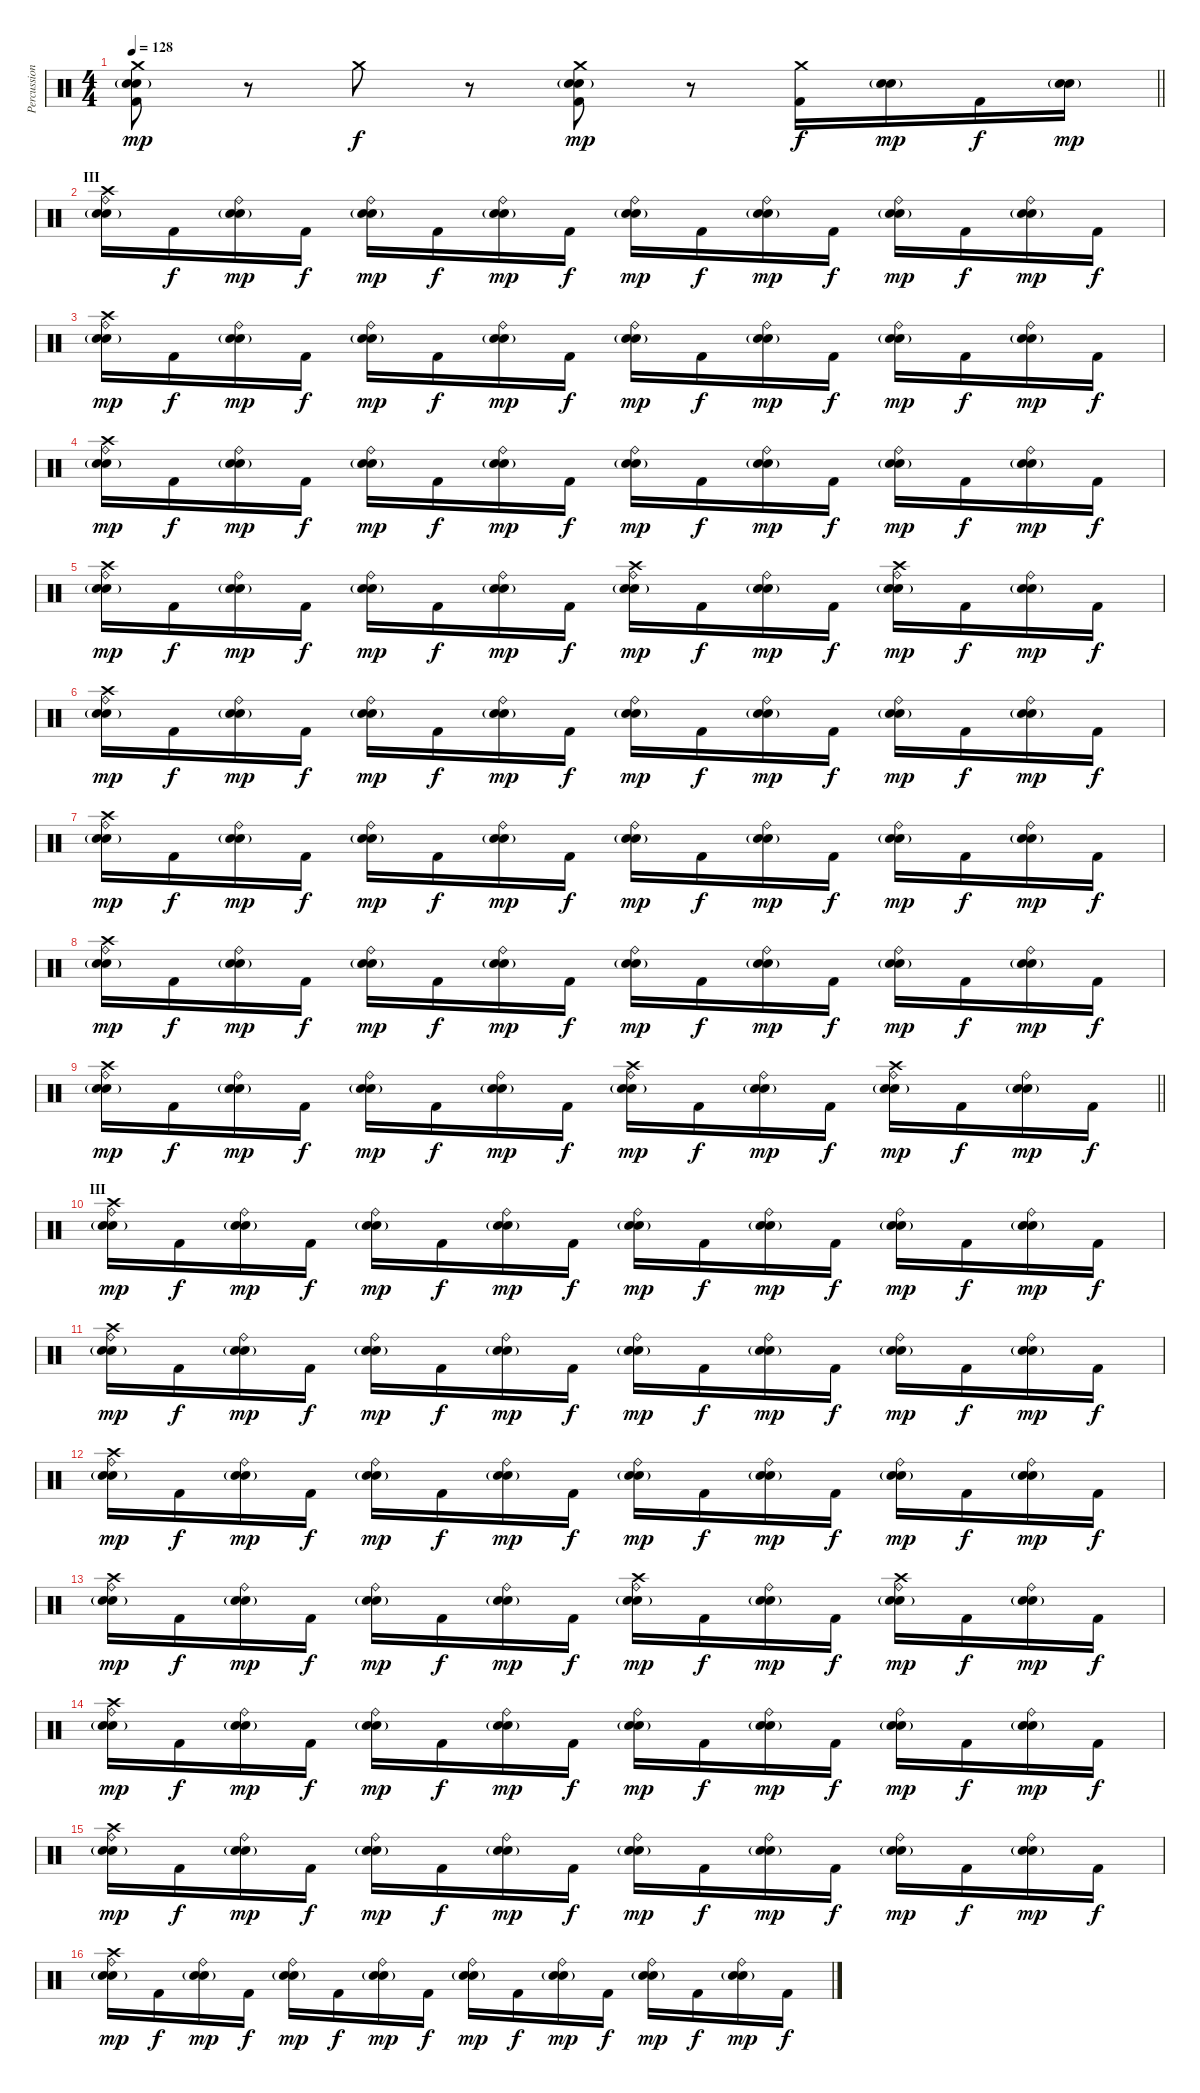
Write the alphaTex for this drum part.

\track ("Percussion" "Percussion") {instrument percussion}
\staff {score}
\articulation defaults
\ts (4 4)
\tempo 128
\clef neutral
\barLineRight lightlight
\ks c
("Crash medium (hit)" "Electric Snare (hit)" "Snare (hit) 2"{g} "Kick (hit) 2").8{dy mp} r.8 "Crash medium (hit)".8{dy f} r.8 ("Crash medium (hit)" "Electric Snare (hit)" "Snare (hit) 2"{g} "Kick (hit) 2").8{dy mp} r.8 ("Crash medium (hit)" "Kick (hit) 2").16{dy f} ("Electric Snare (hit)" "Snare (hit) 2"{g}).16{dy mp} "Kick (hit) 2".16{dy f} ("Electric Snare (hit)" "Snare (hit) 2"{g}).16{dy mp} |
\section ("" "III")
("Crash high (hit)" "Electric Snare (hit)" "Snare (hit) 2"{g} "Ride (bell)").16 "Kick (hit) 2".16{dy f} ("Electric Snare (hit)" "Snare (hit) 2"{g} "Ride (bell)").16{dy mp} "Kick (hit) 2".16{dy f} ("Electric Snare (hit)" "Snare (hit) 2"{g} "Ride (bell)").16{dy mp} "Kick (hit) 2".16{dy f} ("Electric Snare (hit)" "Snare (hit) 2"{g} "Ride (bell)").16{dy mp} "Kick (hit) 2".16{dy f} ("Electric Snare (hit)" "Snare (hit) 2"{g} "Ride (bell)").16{dy mp} "Kick (hit) 2".16{dy f} ("Electric Snare (hit)" "Snare (hit) 2"{g} "Ride (bell)").16{dy mp} "Kick (hit) 2".16{dy f} ("Electric Snare (hit)" "Snare (hit) 2"{g} "Ride (bell)").16{dy mp} "Kick (hit) 2".16{dy f} ("Electric Snare (hit)" "Snare (hit) 2"{g} "Ride (bell)").16{dy mp} "Kick (hit) 2".16{dy f} |
("Crash high (hit)" "Electric Snare (hit)" "Snare (hit) 2"{g} "Ride (bell)").16{dy mp} "Kick (hit) 2".16{dy f} ("Electric Snare (hit)" "Snare (hit) 2"{g} "Ride (bell)").16{dy mp} "Kick (hit) 2".16{dy f} ("Electric Snare (hit)" "Snare (hit) 2"{g} "Ride (bell)").16{dy mp} "Kick (hit) 2".16{dy f} ("Electric Snare (hit)" "Snare (hit) 2"{g} "Ride (bell)").16{dy mp} "Kick (hit) 2".16{dy f} ("Electric Snare (hit)" "Snare (hit) 2"{g} "Ride (bell)").16{dy mp} "Kick (hit) 2".16{dy f} ("Electric Snare (hit)" "Snare (hit) 2"{g} "Ride (bell)").16{dy mp} "Kick (hit) 2".16{dy f} ("Electric Snare (hit)" "Snare (hit) 2"{g} "Ride (bell)").16{dy mp} "Kick (hit) 2".16{dy f} ("Electric Snare (hit)" "Snare (hit) 2"{g} "Ride (bell)").16{dy mp} "Kick (hit) 2".16{dy f} |
("Crash high (hit)" "Electric Snare (hit)" "Snare (hit) 2"{g} "Ride (bell)").16{dy mp} "Kick (hit) 2".16{dy f} ("Electric Snare (hit)" "Snare (hit) 2"{g} "Ride (bell)").16{dy mp} "Kick (hit) 2".16{dy f} ("Electric Snare (hit)" "Snare (hit) 2"{g} "Ride (bell)").16{dy mp} "Kick (hit) 2".16{dy f} ("Electric Snare (hit)" "Snare (hit) 2"{g} "Ride (bell)").16{dy mp} "Kick (hit) 2".16{dy f} ("Electric Snare (hit)" "Snare (hit) 2"{g} "Ride (bell)").16{dy mp} "Kick (hit) 2".16{dy f} ("Electric Snare (hit)" "Snare (hit) 2"{g} "Ride (bell)").16{dy mp} "Kick (hit) 2".16{dy f} ("Electric Snare (hit)" "Snare (hit) 2"{g} "Ride (bell)").16{dy mp} "Kick (hit) 2".16{dy f} ("Electric Snare (hit)" "Snare (hit) 2"{g} "Ride (bell)").16{dy mp} "Kick (hit) 2".16{dy f} |
("Crash high (hit)" "Electric Snare (hit)" "Snare (hit) 2"{g} "Ride (bell)").16{dy mp} "Kick (hit) 2".16{dy f} ("Electric Snare (hit)" "Snare (hit) 2"{g} "Ride (bell)").16{dy mp} "Kick (hit) 2".16{dy f} ("Electric Snare (hit)" "Snare (hit) 2"{g} "Ride (bell)").16{dy mp} "Kick (hit) 2".16{dy f} ("Electric Snare (hit)" "Snare (hit) 2"{g} "Ride (bell)").16{dy mp} "Kick (hit) 2".16{dy f} ("Crash high (hit)" "Electric Snare (hit)" "Snare (hit) 2"{g} "Ride (bell)").16{dy mp} "Kick (hit) 2".16{dy f} ("Electric Snare (hit)" "Snare (hit) 2"{g} "Ride (bell)").16{dy mp} "Kick (hit) 2".16{dy f} ("Crash high (hit)" "Electric Snare (hit)" "Snare (hit) 2"{g} "Ride (bell)").16{dy mp} "Kick (hit) 2".16{dy f} ("Electric Snare (hit)" "Snare (hit) 2"{g} "Ride (bell)").16{dy mp} "Kick (hit) 2".16{dy f} |
("Crash high (hit)" "Electric Snare (hit)" "Snare (hit) 2"{g} "Ride (bell)").16{dy mp} "Kick (hit) 2".16{dy f} ("Electric Snare (hit)" "Snare (hit) 2"{g} "Ride (bell)").16{dy mp} "Kick (hit) 2".16{dy f} ("Electric Snare (hit)" "Snare (hit) 2"{g} "Ride (bell)").16{dy mp} "Kick (hit) 2".16{dy f} ("Electric Snare (hit)" "Snare (hit) 2"{g} "Ride (bell)").16{dy mp} "Kick (hit) 2".16{dy f} ("Electric Snare (hit)" "Snare (hit) 2"{g} "Ride (bell)").16{dy mp} "Kick (hit) 2".16{dy f} ("Electric Snare (hit)" "Snare (hit) 2"{g} "Ride (bell)").16{dy mp} "Kick (hit) 2".16{dy f} ("Electric Snare (hit)" "Snare (hit) 2"{g} "Ride (bell)").16{dy mp} "Kick (hit) 2".16{dy f} ("Electric Snare (hit)" "Snare (hit) 2"{g} "Ride (bell)").16{dy mp} "Kick (hit) 2".16{dy f} |
("Crash high (hit)" "Electric Snare (hit)" "Snare (hit) 2"{g} "Ride (bell)").16{dy mp} "Kick (hit) 2".16{dy f} ("Electric Snare (hit)" "Snare (hit) 2"{g} "Ride (bell)").16{dy mp} "Kick (hit) 2".16{dy f} ("Electric Snare (hit)" "Snare (hit) 2"{g} "Ride (bell)").16{dy mp} "Kick (hit) 2".16{dy f} ("Electric Snare (hit)" "Snare (hit) 2"{g} "Ride (bell)").16{dy mp} "Kick (hit) 2".16{dy f} ("Electric Snare (hit)" "Snare (hit) 2"{g} "Ride (bell)").16{dy mp} "Kick (hit) 2".16{dy f} ("Electric Snare (hit)" "Snare (hit) 2"{g} "Ride (bell)").16{dy mp} "Kick (hit) 2".16{dy f} ("Electric Snare (hit)" "Snare (hit) 2"{g} "Ride (bell)").16{dy mp} "Kick (hit) 2".16{dy f} ("Electric Snare (hit)" "Snare (hit) 2"{g} "Ride (bell)").16{dy mp} "Kick (hit) 2".16{dy f} |
("Crash high (hit)" "Electric Snare (hit)" "Snare (hit) 2"{g} "Ride (bell)").16{dy mp} "Kick (hit) 2".16{dy f} ("Electric Snare (hit)" "Snare (hit) 2"{g} "Ride (bell)").16{dy mp} "Kick (hit) 2".16{dy f} ("Electric Snare (hit)" "Snare (hit) 2"{g} "Ride (bell)").16{dy mp} "Kick (hit) 2".16{dy f} ("Electric Snare (hit)" "Snare (hit) 2"{g} "Ride (bell)").16{dy mp} "Kick (hit) 2".16{dy f} ("Electric Snare (hit)" "Snare (hit) 2"{g} "Ride (bell)").16{dy mp} "Kick (hit) 2".16{dy f} ("Electric Snare (hit)" "Snare (hit) 2"{g} "Ride (bell)").16{dy mp} "Kick (hit) 2".16{dy f} ("Electric Snare (hit)" "Snare (hit) 2"{g} "Ride (bell)").16{dy mp} "Kick (hit) 2".16{dy f} ("Electric Snare (hit)" "Snare (hit) 2"{g} "Ride (bell)").16{dy mp} "Kick (hit) 2".16{dy f} |
\barLineRight lightlight
("Crash high (hit)" "Electric Snare (hit)" "Snare (hit) 2"{g} "Ride (bell)").16{dy mp} "Kick (hit) 2".16{dy f} ("Electric Snare (hit)" "Snare (hit) 2"{g} "Ride (bell)").16{dy mp} "Kick (hit) 2".16{dy f} ("Electric Snare (hit)" "Snare (hit) 2"{g} "Ride (bell)").16{dy mp} "Kick (hit) 2".16{dy f} ("Electric Snare (hit)" "Snare (hit) 2"{g} "Ride (bell)").16{dy mp} "Kick (hit) 2".16{dy f} ("Crash high (hit)" "Electric Snare (hit)" "Snare (hit) 2"{g} "Ride (bell)").16{dy mp} "Kick (hit) 2".16{dy f} ("Electric Snare (hit)" "Snare (hit) 2"{g} "Ride (bell)").16{dy mp} "Kick (hit) 2".16{dy f} ("Crash high (hit)" "Electric Snare (hit)" "Snare (hit) 2"{g} "Ride (bell)").16{dy mp} "Kick (hit) 2".16{dy f} ("Electric Snare (hit)" "Snare (hit) 2"{g} "Ride (bell)").16{dy mp} "Kick (hit) 2".16{dy f} |
\section ("" "III")
("Crash high (hit)" "Electric Snare (hit)" "Snare (hit) 2"{g} "Ride (bell)").16{dy mp} "Kick (hit) 2".16{dy f} ("Electric Snare (hit)" "Snare (hit) 2"{g} "Ride (bell)").16{dy mp} "Kick (hit) 2".16{dy f} ("Electric Snare (hit)" "Snare (hit) 2"{g} "Ride (bell)").16{dy mp} "Kick (hit) 2".16{dy f} ("Electric Snare (hit)" "Snare (hit) 2"{g} "Ride (bell)").16{dy mp} "Kick (hit) 2".16{dy f} ("Electric Snare (hit)" "Snare (hit) 2"{g} "Ride (bell)").16{dy mp} "Kick (hit) 2".16{dy f} ("Electric Snare (hit)" "Snare (hit) 2"{g} "Ride (bell)").16{dy mp} "Kick (hit) 2".16{dy f} ("Electric Snare (hit)" "Snare (hit) 2"{g} "Ride (bell)").16{dy mp} "Kick (hit) 2".16{dy f} ("Electric Snare (hit)" "Snare (hit) 2"{g} "Ride (bell)").16{dy mp} "Kick (hit) 2".16{dy f} |
("Crash high (hit)" "Electric Snare (hit)" "Snare (hit) 2"{g} "Ride (bell)").16{dy mp} "Kick (hit) 2".16{dy f} ("Electric Snare (hit)" "Snare (hit) 2"{g} "Ride (bell)").16{dy mp} "Kick (hit) 2".16{dy f} ("Electric Snare (hit)" "Snare (hit) 2"{g} "Ride (bell)").16{dy mp} "Kick (hit) 2".16{dy f} ("Electric Snare (hit)" "Snare (hit) 2"{g} "Ride (bell)").16{dy mp} "Kick (hit) 2".16{dy f} ("Electric Snare (hit)" "Snare (hit) 2"{g} "Ride (bell)").16{dy mp} "Kick (hit) 2".16{dy f} ("Electric Snare (hit)" "Snare (hit) 2"{g} "Ride (bell)").16{dy mp} "Kick (hit) 2".16{dy f} ("Electric Snare (hit)" "Snare (hit) 2"{g} "Ride (bell)").16{dy mp} "Kick (hit) 2".16{dy f} ("Electric Snare (hit)" "Snare (hit) 2"{g} "Ride (bell)").16{dy mp} "Kick (hit) 2".16{dy f} |
("Crash high (hit)" "Electric Snare (hit)" "Snare (hit) 2"{g} "Ride (bell)").16{dy mp} "Kick (hit) 2".16{dy f} ("Electric Snare (hit)" "Snare (hit) 2"{g} "Ride (bell)").16{dy mp} "Kick (hit) 2".16{dy f} ("Electric Snare (hit)" "Snare (hit) 2"{g} "Ride (bell)").16{dy mp} "Kick (hit) 2".16{dy f} ("Electric Snare (hit)" "Snare (hit) 2"{g} "Ride (bell)").16{dy mp} "Kick (hit) 2".16{dy f} ("Electric Snare (hit)" "Snare (hit) 2"{g} "Ride (bell)").16{dy mp} "Kick (hit) 2".16{dy f} ("Electric Snare (hit)" "Snare (hit) 2"{g} "Ride (bell)").16{dy mp} "Kick (hit) 2".16{dy f} ("Electric Snare (hit)" "Snare (hit) 2"{g} "Ride (bell)").16{dy mp} "Kick (hit) 2".16{dy f} ("Electric Snare (hit)" "Snare (hit) 2"{g} "Ride (bell)").16{dy mp} "Kick (hit) 2".16{dy f} |
("Crash high (hit)" "Electric Snare (hit)" "Snare (hit) 2"{g} "Ride (bell)").16{dy mp} "Kick (hit) 2".16{dy f} ("Electric Snare (hit)" "Snare (hit) 2"{g} "Ride (bell)").16{dy mp} "Kick (hit) 2".16{dy f} ("Electric Snare (hit)" "Snare (hit) 2"{g} "Ride (bell)").16{dy mp} "Kick (hit) 2".16{dy f} ("Electric Snare (hit)" "Snare (hit) 2"{g} "Ride (bell)").16{dy mp} "Kick (hit) 2".16{dy f} ("Crash high (hit)" "Electric Snare (hit)" "Snare (hit) 2"{g} "Ride (bell)").16{dy mp} "Kick (hit) 2".16{dy f} ("Electric Snare (hit)" "Snare (hit) 2"{g} "Ride (bell)").16{dy mp} "Kick (hit) 2".16{dy f} ("Crash high (hit)" "Electric Snare (hit)" "Snare (hit) 2"{g} "Ride (bell)").16{dy mp} "Kick (hit) 2".16{dy f} ("Electric Snare (hit)" "Snare (hit) 2"{g} "Ride (bell)").16{dy mp} "Kick (hit) 2".16{dy f} |
("Crash high (hit)" "Electric Snare (hit)" "Snare (hit) 2"{g} "Ride (bell)").16{dy mp} "Kick (hit) 2".16{dy f} ("Electric Snare (hit)" "Snare (hit) 2"{g} "Ride (bell)").16{dy mp} "Kick (hit) 2".16{dy f} ("Electric Snare (hit)" "Snare (hit) 2"{g} "Ride (bell)").16{dy mp} "Kick (hit) 2".16{dy f} ("Electric Snare (hit)" "Snare (hit) 2"{g} "Ride (bell)").16{dy mp} "Kick (hit) 2".16{dy f} ("Electric Snare (hit)" "Snare (hit) 2"{g} "Ride (bell)").16{dy mp} "Kick (hit) 2".16{dy f} ("Electric Snare (hit)" "Snare (hit) 2"{g} "Ride (bell)").16{dy mp} "Kick (hit) 2".16{dy f} ("Electric Snare (hit)" "Snare (hit) 2"{g} "Ride (bell)").16{dy mp} "Kick (hit) 2".16{dy f} ("Electric Snare (hit)" "Snare (hit) 2"{g} "Ride (bell)").16{dy mp} "Kick (hit) 2".16{dy f} |
("Crash high (hit)" "Electric Snare (hit)" "Snare (hit) 2"{g} "Ride (bell)").16{dy mp} "Kick (hit) 2".16{dy f} ("Electric Snare (hit)" "Snare (hit) 2"{g} "Ride (bell)").16{dy mp} "Kick (hit) 2".16{dy f} ("Electric Snare (hit)" "Snare (hit) 2"{g} "Ride (bell)").16{dy mp} "Kick (hit) 2".16{dy f} ("Electric Snare (hit)" "Snare (hit) 2"{g} "Ride (bell)").16{dy mp} "Kick (hit) 2".16{dy f} ("Electric Snare (hit)" "Snare (hit) 2"{g} "Ride (bell)").16{dy mp} "Kick (hit) 2".16{dy f} ("Electric Snare (hit)" "Snare (hit) 2"{g} "Ride (bell)").16{dy mp} "Kick (hit) 2".16{dy f} ("Electric Snare (hit)" "Snare (hit) 2"{g} "Ride (bell)").16{dy mp} "Kick (hit) 2".16{dy f} ("Electric Snare (hit)" "Snare (hit) 2"{g} "Ride (bell)").16{dy mp} "Kick (hit) 2".16{dy f} |
("Crash high (hit)" "Electric Snare (hit)" "Snare (hit) 2"{g} "Ride (bell)").16{dy mp} "Kick (hit) 2".16{dy f} ("Electric Snare (hit)" "Snare (hit) 2"{g} "Ride (bell)").16{dy mp} "Kick (hit) 2".16{dy f} ("Electric Snare (hit)" "Snare (hit) 2"{g} "Ride (bell)").16{dy mp} "Kick (hit) 2".16{dy f} ("Electric Snare (hit)" "Snare (hit) 2"{g} "Ride (bell)").16{dy mp} "Kick (hit) 2".16{dy f} ("Electric Snare (hit)" "Snare (hit) 2"{g} "Ride (bell)").16{dy mp} "Kick (hit) 2".16{dy f} ("Electric Snare (hit)" "Snare (hit) 2"{g} "Ride (bell)").16{dy mp} "Kick (hit) 2".16{dy f} ("Electric Snare (hit)" "Snare (hit) 2"{g} "Ride (bell)").16{dy mp} "Kick (hit) 2".16{dy f} ("Electric Snare (hit)" "Snare (hit) 2"{g} "Ride (bell)").16{dy mp} "Kick (hit) 2".16{dy f}
